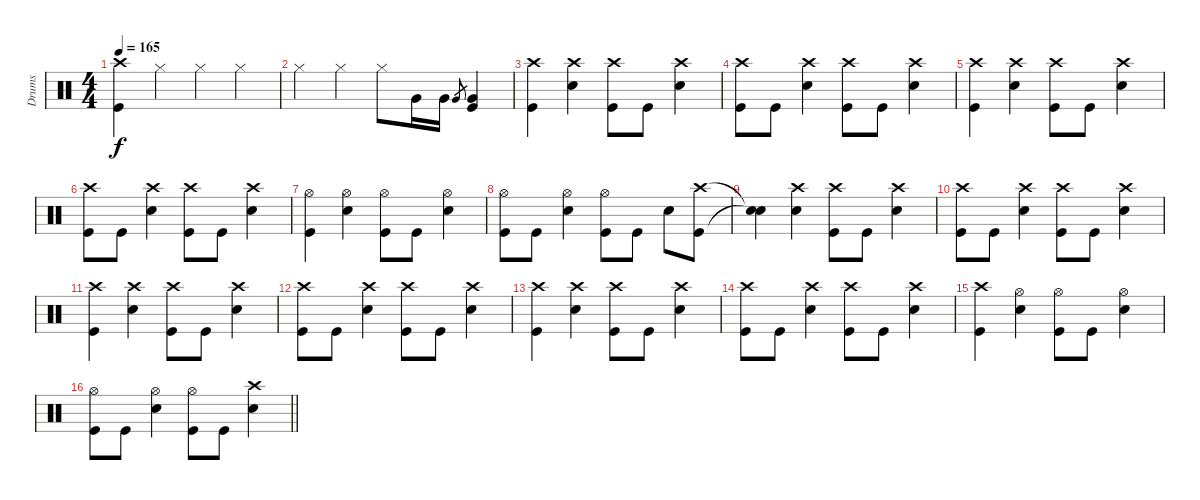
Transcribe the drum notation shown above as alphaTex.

\track ("Drums" "Drums") {instrument percussion}
\staff {score}
\articulation defaults
\ts (4 4)
\tempo 165
\clef neutral
\ks c
("Crash high (hit)" "Kick (hit)").4{dy f} "Hi-Hat (closed)".4 "Hi-Hat (closed)".4 "Hi-Hat (closed)".4 |
"Hi-Hat (closed)".4 "Hi-Hat (closed)".4 "Hi-Hat (closed)".8 "Very Low Tom (hit)".16 "Very Low Tom (hit)".16 "Very Low Tom (hit)".8{gr} ("Very Low Tom (hit)" "Kick (hit)").4 |
("Crash high (hit)" "Kick (hit)").4 ("Crash high (hit)" "Snare (hit) 2").4 ("Crash high (hit)" "Kick (hit)").8 "Kick (hit)".8 ("Crash high (hit)" "Snare (hit) 2").4 |
("Crash high (hit)" "Kick (hit)").8 "Kick (hit)".8 ("Crash high (hit)" "Snare (hit) 2").4 ("Crash high (hit)" "Kick (hit)").8 "Kick (hit)".8 ("Crash high (hit)" "Snare (hit) 2").4 |
("Crash high (hit)" "Kick (hit)").4 ("Crash high (hit)" "Snare (hit) 2").4 ("Crash high (hit)" "Kick (hit)").8 "Kick (hit)".8 ("Crash high (hit)" "Snare (hit) 2").4 |
("Crash high (hit)" "Kick (hit)").8 "Kick (hit)".8 ("Crash high (hit)" "Snare (hit) 2").4 ("Crash high (hit)" "Kick (hit)").8 "Kick (hit)".8 ("Crash high (hit)" "Snare (hit) 2").4 |
("Hi-Hat (open)" "Kick (hit)").4 ("Hi-Hat (open)" "Snare (hit) 2").4 ("Hi-Hat (open)" "Kick (hit)").8 "Kick (hit)".8 ("Hi-Hat (open)" "Snare (hit) 2").4 |
("Hi-Hat (open)" "Kick (hit)").8 "Kick (hit)".8 ("Hi-Hat (open)" "Snare (hit) 2").4 ("Hi-Hat (open)" "Kick (hit)").8 "Kick (hit)".8 "Snare (hit) 2".8 ("Kick (hit)" "Crash high (hit)").8 |
("Snare (hit)"{t} "Snare (hit)"{t}).4 ("Crash high (hit)" "Snare (hit) 2").4 ("Crash high (hit)" "Kick (hit)").8 "Kick (hit)".8 ("Crash high (hit)" "Snare (hit) 2").4 |
("Crash high (hit)" "Kick (hit)").8 "Kick (hit)".8 ("Crash high (hit)" "Snare (hit) 2").4 ("Crash high (hit)" "Kick (hit)").8 "Kick (hit)".8 ("Crash high (hit)" "Snare (hit) 2").4 |
("Crash high (hit)" "Kick (hit)").4 ("Crash high (hit)" "Snare (hit) 2").4 ("Crash high (hit)" "Kick (hit)").8 "Kick (hit)".8 ("Crash high (hit)" "Snare (hit) 2").4 |
("Crash high (hit)" "Kick (hit)").8 "Kick (hit)".8 ("Crash high (hit)" "Snare (hit) 2").4 ("Crash high (hit)" "Kick (hit)").8 "Kick (hit)".8 ("Crash high (hit)" "Snare (hit) 2").4 |
("Crash high (hit)" "Kick (hit)").4 ("Crash high (hit)" "Snare (hit) 2").4 ("Crash high (hit)" "Kick (hit)").8 "Kick (hit)".8 ("Crash high (hit)" "Snare (hit) 2").4 |
("Crash high (hit)" "Kick (hit)").8 "Kick (hit)".8 ("Crash high (hit)" "Snare (hit) 2").4 ("Crash high (hit)" "Kick (hit)").8 "Kick (hit)".8 ("Crash high (hit)" "Snare (hit) 2").4 |
("Crash high (hit)" "Kick (hit)").4 ("Hi-Hat (open)" "Snare (hit) 2").4 ("Hi-Hat (open)" "Kick (hit)").8 "Kick (hit)".8 ("Hi-Hat (open)" "Snare (hit) 2").4 |
\barLineRight lightlight
("Hi-Hat (open)" "Kick (hit)").8 "Kick (hit)".8 ("Hi-Hat (open)" "Snare (hit) 2").4 ("Hi-Hat (open)" "Kick (hit)").8 "Kick (hit)".8 ("Crash high (hit)" "Snare (hit) 2").4
